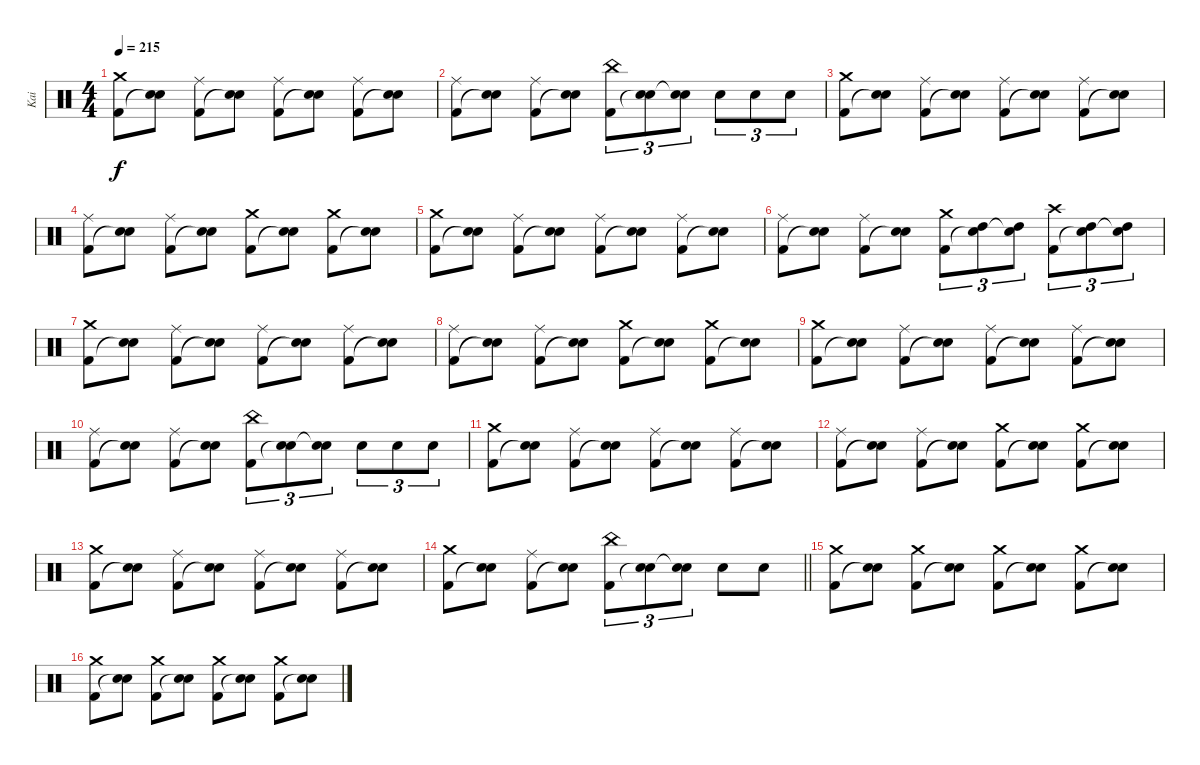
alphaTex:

\track ("Kai" "Kai") {instrument percussion}
\staff {score}
\articulation defaults
\ts (4 4)
\tempo 215
\clef neutral
\ks c
("Crash medium (hit)" "Kick (hit) 2").8{dy f} ("Snare (hit) 2" "Snare (hit)"{t}).8 ("Ride (middle)" "Kick (hit) 2").8 ("Snare (hit) 2" "Snare (hit)"{t}).8 ("Ride (middle)" "Kick (hit) 2").8 ("Snare (hit) 2" "Snare (hit)"{t}).8 ("Ride (middle)" "Kick (hit) 2").8 ("Snare (hit) 2" "Snare (hit)"{t}).8 |
("Ride (middle)" "Kick (hit) 2").8 ("Snare (hit) 2" "Snare (hit)"{t}).8 ("Ride (middle)" "Kick (hit) 2").8 ("Snare (hit) 2" "Snare (hit)"{t}).8 ("China (hit)" "Kick (hit) 2").8{tu (3 2)} ("Snare (hit) 2" "Snare (hit)"{t}).8{tu (3 2)} ("Snare (hit) 2" "Snare (hit)"{t}).8{tu (3 2)} "Snare (hit) 2".8{tu (3 2)} "Snare (hit) 2".8{tu (3 2)} "Snare (hit) 2".8{tu (3 2)} |
("Crash medium (hit)" "Kick (hit) 2").8 ("Snare (hit) 2" "Snare (hit)"{t}).8 ("Ride (middle)" "Kick (hit) 2").8 ("Snare (hit) 2" "Snare (hit)"{t}).8 ("Ride (middle)" "Kick (hit) 2").8 ("Snare (hit) 2" "Snare (hit)"{t}).8 ("Ride (middle)" "Kick (hit) 2").8 ("Snare (hit) 2" "Snare (hit)"{t}).8 |
("Ride (middle)" "Kick (hit) 2").8 ("Snare (hit) 2" "Snare (hit)"{t}).8 ("Ride (middle)" "Kick (hit) 2").8 ("Snare (hit) 2" "Snare (hit)"{t}).8 ("Crash medium (hit)" "Kick (hit) 2").8 ("Snare (hit) 2" "Snare (hit)"{t}).8 ("Crash medium (hit)" "Kick (hit) 2").8 ("Snare (hit) 2" "Snare (hit)"{t}).8 |
("Crash medium (hit)" "Kick (hit) 2").8 ("Snare (hit) 2" "Snare (hit)"{t}).8 ("Ride (middle)" "Kick (hit) 2").8 ("Snare (hit) 2" "Snare (hit)"{t}).8 ("Ride (middle)" "Kick (hit) 2").8 ("Snare (hit) 2" "Snare (hit)"{t}).8 ("Ride (middle)" "Kick (hit) 2").8 ("Snare (hit) 2" "Snare (hit)"{t}).8 |
("Ride (middle)" "Kick (hit) 2").8 ("Snare (hit) 2" "Snare (hit)"{t}).8 ("Ride (middle)" "Kick (hit) 2").8 ("Snare (hit) 2" "Snare (hit)"{t}).8 ("Crash medium (hit)" "Kick (hit) 2").8{tu (3 2)} ("High Tom (hit)" "Snare (hit)"{t}).8{tu (3 2)} ("High Tom (hit)" "Snare (hit)"{t}).8{tu (3 2)} ("Crash high (hit)" "Kick (hit) 2").8{tu (3 2)} ("High Tom (hit)" "Snare (hit)"{t}).8{tu (3 2)} ("High Tom (hit)" "Snare (hit)"{t}).8{tu (3 2)} |
("Crash medium (hit)" "Kick (hit) 2").8 ("Snare (hit) 2" "Snare (hit)"{t}).8 ("Ride (middle)" "Kick (hit) 2").8 ("Snare (hit) 2" "Snare (hit)"{t}).8 ("Ride (middle)" "Kick (hit) 2").8 ("Snare (hit) 2" "Snare (hit)"{t}).8 ("Ride (middle)" "Kick (hit) 2").8 ("Snare (hit) 2" "Snare (hit)"{t}).8 |
("Ride (middle)" "Kick (hit) 2").8 ("Snare (hit) 2" "Snare (hit)"{t}).8 ("Ride (middle)" "Kick (hit) 2").8 ("Snare (hit) 2" "Snare (hit)"{t}).8 ("Crash medium (hit)" "Kick (hit) 2").8 ("Snare (hit) 2" "Snare (hit)"{t}).8 ("Crash medium (hit)" "Kick (hit) 2").8 ("Snare (hit) 2" "Snare (hit)"{t}).8 |
("Crash medium (hit)" "Kick (hit) 2").8 ("Snare (hit) 2" "Snare (hit)"{t}).8 ("Ride (middle)" "Kick (hit) 2").8 ("Snare (hit) 2" "Snare (hit)"{t}).8 ("Ride (middle)" "Kick (hit) 2").8 ("Snare (hit) 2" "Snare (hit)"{t}).8 ("Ride (middle)" "Kick (hit) 2").8 ("Snare (hit) 2" "Snare (hit)"{t}).8 |
("Ride (middle)" "Kick (hit) 2").8 ("Snare (hit) 2" "Snare (hit)"{t}).8 ("Ride (middle)" "Kick (hit) 2").8 ("Snare (hit) 2" "Snare (hit)"{t}).8 ("China (hit)" "Kick (hit) 2").8{tu (3 2)} ("Snare (hit) 2" "Snare (hit)"{t}).8{tu (3 2)} ("Snare (hit) 2" "Snare (hit)"{t}).8{tu (3 2)} "Snare (hit) 2".8{tu (3 2)} "Snare (hit) 2".8{tu (3 2)} "Snare (hit) 2".8{tu (3 2)} |
("Crash medium (hit)" "Kick (hit) 2").8 ("Snare (hit) 2" "Snare (hit)"{t}).8 ("Ride (middle)" "Kick (hit) 2").8 ("Snare (hit) 2" "Snare (hit)"{t}).8 ("Ride (middle)" "Kick (hit) 2").8 ("Snare (hit) 2" "Snare (hit)"{t}).8 ("Ride (middle)" "Kick (hit) 2").8 ("Snare (hit) 2" "Snare (hit)"{t}).8 |
("Ride (middle)" "Kick (hit) 2").8 ("Snare (hit) 2" "Snare (hit)"{t}).8 ("Ride (middle)" "Kick (hit) 2").8 ("Snare (hit) 2" "Snare (hit)"{t}).8 ("Crash medium (hit)" "Kick (hit) 2").8 ("Snare (hit) 2" "Snare (hit)"{t}).8 ("Crash medium (hit)" "Kick (hit) 2").8 ("Snare (hit) 2" "Snare (hit)"{t}).8 |
("Crash medium (hit)" "Kick (hit) 2").8 ("Snare (hit) 2" "Snare (hit)"{t}).8 ("Ride (middle)" "Kick (hit) 2").8 ("Snare (hit) 2" "Snare (hit)"{t}).8 ("Ride (middle)" "Kick (hit) 2").8 ("Snare (hit) 2" "Snare (hit)"{t}).8 ("Ride (middle)" "Kick (hit) 2").8 ("Snare (hit) 2" "Snare (hit)"{t}).8 |
\barLineRight lightlight
("Crash medium (hit)" "Kick (hit) 2").8 ("Snare (hit) 2" "Snare (hit)"{t}).8 ("Ride (middle)" "Kick (hit) 2").8 ("Snare (hit) 2" "Snare (hit)"{t}).8 ("China (hit)" "Kick (hit) 2").8{tu (3 2)} ("Snare (hit) 2" "Snare (hit)"{t}).8{tu (3 2)} ("Snare (hit) 2" "Snare (hit)"{t}).8{tu (3 2)} "Snare (hit) 2".8 "Snare (hit) 2".8 |
("Crash medium (hit)" "Kick (hit) 2").8 ("Snare (hit) 2" "Snare (hit)"{t}).8 ("Crash medium (hit)" "Kick (hit) 2").8 ("Snare (hit) 2" "Snare (hit)"{t}).8 ("Crash medium (hit)" "Kick (hit) 2").8 ("Snare (hit) 2" "Snare (hit)"{t}).8 ("Crash medium (hit)" "Kick (hit) 2").8 ("Snare (hit) 2" "Snare (hit)"{t}).8 |
("Crash medium (hit)" "Kick (hit) 2").8 ("Snare (hit) 2" "Snare (hit)"{t}).8 ("Crash medium (hit)" "Kick (hit) 2").8 ("Snare (hit) 2" "Snare (hit)"{t}).8 ("Crash medium (hit)" "Kick (hit) 2").8 ("Snare (hit) 2" "Snare (hit)"{t}).8 ("Crash medium (hit)" "Kick (hit) 2").8 ("Snare (hit) 2" "Snare (hit)"{t}).8
